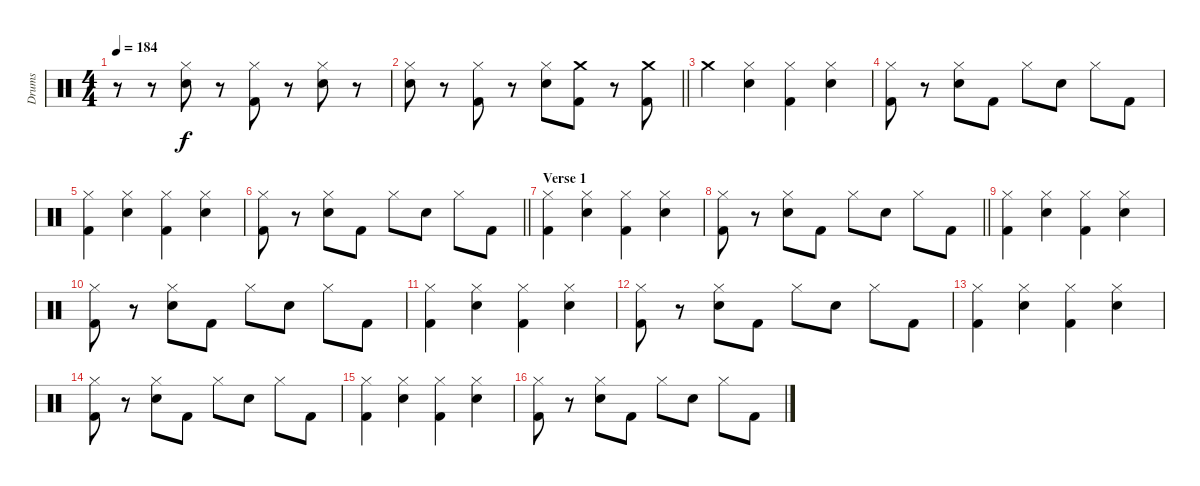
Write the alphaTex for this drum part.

\track ("Drums" "Drums") {instrument percussion}
\staff {score}
\articulation defaults
\ts (4 4)
\tempo 184
\clef neutral
\ks c
r.8{dy f} r.8 ("Hi-Hat (closed)" "Snare (hit) 2").8 r.8 ("Hi-Hat (closed)" "Kick (hit) 2").8 r.8 ("Hi-Hat (closed)" "Snare (hit) 2").8 r.8 |
\barLineRight lightlight
("Hi-Hat (closed)" "Snare (hit) 2").8 r.8 ("Hi-Hat (closed)" "Kick (hit) 2").8 r.8 ("Hi-Hat (closed)" "Snare (hit) 2").8 ("Crash medium (hit)" "Kick (hit) 2").8 r.8 ("Crash medium (hit)" "Kick (hit) 2").8 |
"Crash medium (hit)".4 ("Hi-Hat (closed)" "Snare (hit) 2").4 ("Hi-Hat (closed)" "Kick (hit) 2").4 ("Hi-Hat (closed)" "Snare (hit) 2").4 |
("Hi-Hat (closed)" "Kick (hit) 2").8 r.8 ("Hi-Hat (closed)" "Snare (hit) 2").8 "Kick (hit) 2".8 "Hi-Hat (closed)".8 "Snare (hit) 2".8 "Hi-Hat (closed)".8 "Kick (hit) 2".8 |
("Hi-Hat (closed)" "Kick (hit) 2").4 ("Hi-Hat (closed)" "Snare (hit) 2").4 ("Hi-Hat (closed)" "Kick (hit) 2").4 ("Hi-Hat (closed)" "Snare (hit) 2").4 |
\barLineRight lightlight
("Hi-Hat (closed)" "Kick (hit) 2").8 r.8 ("Hi-Hat (closed)" "Snare (hit) 2").8 "Kick (hit) 2".8 "Hi-Hat (closed)".8 "Snare (hit) 2".8 "Hi-Hat (closed)".8 "Kick (hit) 2".8 |
\section ("" "Verse 1")
("Hi-Hat (closed)" "Kick (hit) 2").4 ("Hi-Hat (closed)" "Snare (hit) 2").4 ("Hi-Hat (closed)" "Kick (hit) 2").4 ("Hi-Hat (closed)" "Snare (hit) 2").4 |
\barLineRight lightlight
("Hi-Hat (closed)" "Kick (hit) 2").8 r.8 ("Hi-Hat (closed)" "Snare (hit) 2").8 "Kick (hit) 2".8 "Hi-Hat (closed)".8 "Snare (hit) 2".8 "Hi-Hat (closed)".8 "Kick (hit) 2".8 |
("Hi-Hat (closed)" "Kick (hit) 2").4 ("Hi-Hat (closed)" "Snare (hit) 2").4 ("Hi-Hat (closed)" "Kick (hit) 2").4 ("Hi-Hat (closed)" "Snare (hit) 2").4 |
("Hi-Hat (closed)" "Kick (hit) 2").8 r.8 ("Hi-Hat (closed)" "Snare (hit) 2").8 "Kick (hit) 2".8 "Hi-Hat (closed)".8 "Snare (hit) 2".8 "Hi-Hat (closed)".8 "Kick (hit) 2".8 |
("Hi-Hat (closed)" "Kick (hit) 2").4 ("Hi-Hat (closed)" "Snare (hit) 2").4 ("Hi-Hat (closed)" "Kick (hit) 2").4 ("Hi-Hat (closed)" "Snare (hit) 2").4 |
("Hi-Hat (closed)" "Kick (hit) 2").8 r.8 ("Hi-Hat (closed)" "Snare (hit) 2").8 "Kick (hit) 2".8 "Hi-Hat (closed)".8 "Snare (hit) 2".8 "Hi-Hat (closed)".8 "Kick (hit) 2".8 |
("Hi-Hat (closed)" "Kick (hit) 2").4 ("Hi-Hat (closed)" "Snare (hit) 2").4 ("Hi-Hat (closed)" "Kick (hit) 2").4 ("Hi-Hat (closed)" "Snare (hit) 2").4 |
("Hi-Hat (closed)" "Kick (hit) 2").8 r.8 ("Hi-Hat (closed)" "Snare (hit) 2").8 "Kick (hit) 2".8 "Hi-Hat (closed)".8 "Snare (hit) 2".8 "Hi-Hat (closed)".8 "Kick (hit) 2".8 |
("Hi-Hat (closed)" "Kick (hit) 2").4 ("Hi-Hat (closed)" "Snare (hit) 2").4 ("Hi-Hat (closed)" "Kick (hit) 2").4 ("Hi-Hat (closed)" "Snare (hit) 2").4 |
("Hi-Hat (closed)" "Kick (hit) 2").8 r.8 ("Hi-Hat (closed)" "Snare (hit) 2").8 "Kick (hit) 2".8 "Hi-Hat (closed)".8 "Snare (hit) 2".8 "Hi-Hat (closed)".8 "Kick (hit) 2".8
